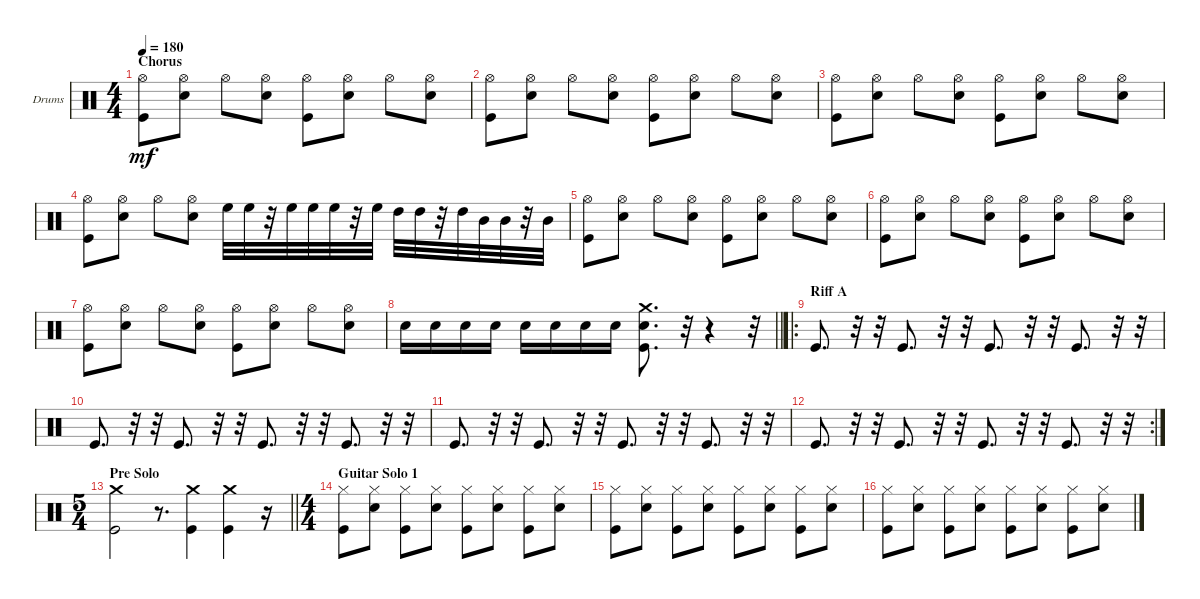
\bracketExtendMode groupsimilarinstruments
\firstSystemTrackNameOrientation horizontal
\otherSystemsTrackNameOrientation horizontal
\track ("Drumkit" "Drums") {instrument percussion}
\staff {score}
\articulation defaults
\ts (4 4)
\section ("" "Chorus")
\tempo 180
\clef neutral
\ks c
("Kick (hit)" "Hi-Hat (open)").8{dy mf} ("Snare (hit) 2" "Hi-Hat (open)").8 "Hi-Hat (open)".8 ("Snare (hit) 2" "Hi-Hat (open)").8 ("Kick (hit)" "Hi-Hat (open)").8 ("Snare (hit) 2" "Hi-Hat (open)").8 "Hi-Hat (open)".8 ("Snare (hit) 2" "Hi-Hat (open)").8 |
("Kick (hit)" "Hi-Hat (open)").8 ("Snare (hit) 2" "Hi-Hat (open)").8 "Hi-Hat (open)".8 ("Snare (hit) 2" "Hi-Hat (open)").8 ("Kick (hit)" "Hi-Hat (open)").8 ("Snare (hit) 2" "Hi-Hat (open)").8 "Hi-Hat (open)".8 ("Snare (hit) 2" "Hi-Hat (open)").8 |
("Kick (hit)" "Hi-Hat (open)").8 ("Snare (hit) 2" "Hi-Hat (open)").8 "Hi-Hat (open)".8 ("Snare (hit) 2" "Hi-Hat (open)").8 ("Kick (hit)" "Hi-Hat (open)").8 ("Snare (hit) 2" "Hi-Hat (open)").8 "Hi-Hat (open)".8 ("Snare (hit) 2" "Hi-Hat (open)").8 |
("Kick (hit)" "Hi-Hat (open)").8 ("Snare (hit) 2" "Hi-Hat (open)").8 "Hi-Hat (open)".8 ("Snare (hit) 2" "Hi-Hat (open)").8 "High Floor Tom (hit)".32 "High Floor Tom (hit)".32 r.32 "High Floor Tom (hit)".32 "High Floor Tom (hit)".32 "High Floor Tom (hit)".32 r.32 "High Floor Tom (hit)".32 "High Tom (hit)".32 "High Tom (hit)".32 r.32 "High Tom (hit)".32 "Mid Tom (hit)".32 "Mid Tom (hit)".32 r.32 "Mid Tom (hit)".32 |
("Kick (hit)" "Hi-Hat (open)").8 ("Snare (hit) 2" "Hi-Hat (open)").8 "Hi-Hat (open)".8 ("Snare (hit) 2" "Hi-Hat (open)").8 ("Kick (hit)" "Hi-Hat (open)").8 ("Snare (hit) 2" "Hi-Hat (open)").8 "Hi-Hat (open)".8 ("Snare (hit) 2" "Hi-Hat (open)").8 |
("Kick (hit)" "Hi-Hat (open)").8 ("Snare (hit) 2" "Hi-Hat (open)").8 "Hi-Hat (open)".8 ("Snare (hit) 2" "Hi-Hat (open)").8 ("Kick (hit)" "Hi-Hat (open)").8 ("Snare (hit) 2" "Hi-Hat (open)").8 "Hi-Hat (open)".8 ("Snare (hit) 2" "Hi-Hat (open)").8 |
("Kick (hit)" "Hi-Hat (open)").8 ("Snare (hit) 2" "Hi-Hat (open)").8 "Hi-Hat (open)".8 ("Snare (hit) 2" "Hi-Hat (open)").8 ("Kick (hit)" "Hi-Hat (open)").8 ("Snare (hit) 2" "Hi-Hat (open)").8 "Hi-Hat (open)".8 ("Snare (hit) 2" "Hi-Hat (open)").8 |
\barLineRight lightlight "Snare (hit) 2".16 "Snare (hit) 2".16 "Snare (hit) 2".16 "Snare (hit) 2".16 "Snare (hit) 2".16 "Snare (hit) 2".16 "Snare (hit) 2".16 "Snare (hit) 2".16
("Kick (hit)" "Snare (hit) 2" "Crash medium (hit)").8{d} r.32 r.4 r.32 |
\ro
\section ("" "Riff A")
"Kick (hit)".8{d} r.32 r.32 "Kick (hit)".8{d} r.32 r.32 "Kick (hit)".8{d} r.32 r.32 "Kick (hit)".8{d} r.32 r.32 |
"Kick (hit)".8{d} r.32 r.32 "Kick (hit)".8{d} r.32 r.32 "Kick (hit)".8{d} r.32 r.32 "Kick (hit)".8{d} r.32 r.32 |
"Kick (hit)".8{d} r.32 r.32 "Kick (hit)".8{d} r.32 r.32 "Kick (hit)".8{d} r.32 r.32 "Kick (hit)".8{d} r.32 r.32 |
\rc 2 "Kick (hit)".8{d}
r.32 r.32 "Kick (hit)".8{d} r.32 r.32 "Kick (hit)".8{d} r.32 r.32 "Kick (hit)".8{d} r.32 r.32 |
\ts (5 4)
\beaming (8 6 4)
\section ("" "Pre Solo")
\barLineRight lightlight
("Kick (hit)" "Crash medium (hit)").2 r.8{d} ("Kick (hit)" "Crash medium (hit)").4 ("Kick (hit)" "Crash medium (hit)").4 r.16 |
\ts (4 4)
\beaming (8 2 2 2 2)
\section ("" "Guitar Solo 1")
("Kick (hit)" "Hi-Hat (closed)").8 ("Snare (hit) 2" "Hi-Hat (closed)").8 ("Kick (hit)" "Hi-Hat (closed)").8 ("Snare (hit) 2" "Hi-Hat (closed)").8 ("Kick (hit)" "Hi-Hat (closed)").8 ("Snare (hit) 2" "Hi-Hat (closed)").8 ("Kick (hit)" "Hi-Hat (closed)").8 ("Snare (hit) 2" "Hi-Hat (closed)").8 |
("Kick (hit)" "Hi-Hat (closed)").8 ("Snare (hit) 2" "Hi-Hat (closed)").8 ("Kick (hit)" "Hi-Hat (closed)").8 ("Snare (hit) 2" "Hi-Hat (closed)").8 ("Kick (hit)" "Hi-Hat (closed)").8 ("Snare (hit) 2" "Hi-Hat (closed)").8 ("Kick (hit)" "Hi-Hat (closed)").8 ("Snare (hit) 2" "Hi-Hat (closed)").8 |
("Kick (hit)" "Hi-Hat (closed)").8 ("Snare (hit) 2" "Hi-Hat (closed)").8 ("Kick (hit)" "Hi-Hat (closed)").8 ("Snare (hit) 2" "Hi-Hat (closed)").8 ("Kick (hit)" "Hi-Hat (closed)").8 ("Snare (hit) 2" "Hi-Hat (closed)").8 ("Kick (hit)" "Hi-Hat (closed)").8 ("Snare (hit) 2" "Hi-Hat (closed)").8
